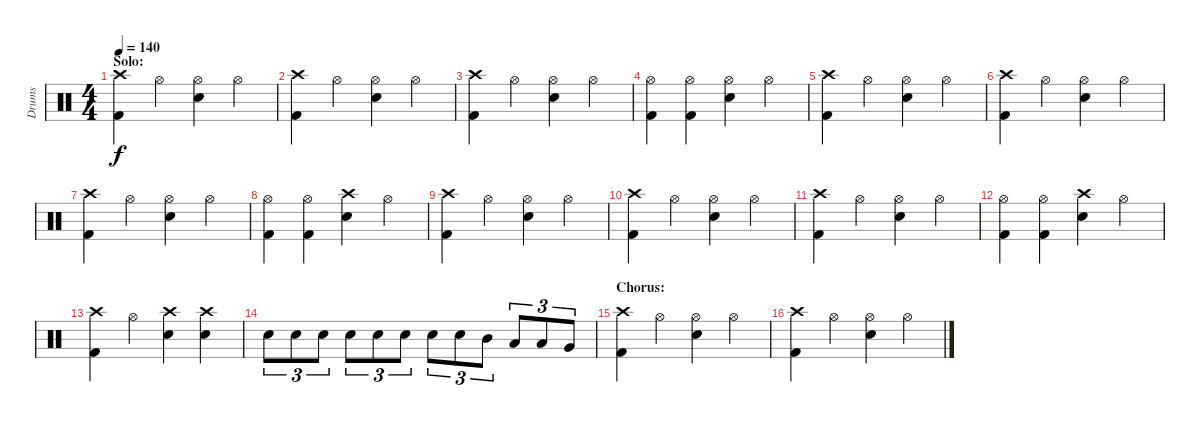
\track ("Drums" "Drums") {instrument percussion}
\staff {score}
\articulation defaults
\ts (4 4)
\section ("" "Solo:")
\tempo 140
\clef neutral
\ks c
("Crash high (hit)" "Kick (hit) 2").4{dy f} "Hi-Hat (open)".4 ("Hi-Hat (open)" "Electric Snare (hit)").4 "Hi-Hat (open)".4 |
("Crash high (hit)" "Kick (hit) 2").4 "Hi-Hat (open)".4 ("Hi-Hat (open)" "Electric Snare (hit)").4 "Hi-Hat (open)".4 |
("Crash high (hit)" "Kick (hit) 2").4 "Hi-Hat (open)".4 ("Hi-Hat (open)" "Electric Snare (hit)").4 "Hi-Hat (open)".4 |
("Hi-Hat (open)" "Kick (hit) 2").4 ("Hi-Hat (open)" "Kick (hit) 2").4 ("Hi-Hat (open)" "Electric Snare (hit)").4 "Hi-Hat (open)".4 |
("Crash high (hit)" "Kick (hit) 2").4 "Hi-Hat (open)".4 ("Hi-Hat (open)" "Electric Snare (hit)").4 "Hi-Hat (open)".4 |
("Crash high (hit)" "Kick (hit) 2").4 "Hi-Hat (open)".4 ("Hi-Hat (open)" "Electric Snare (hit)").4 "Hi-Hat (open)".4 |
("Crash high (hit)" "Kick (hit) 2").4 "Hi-Hat (open)".4 ("Hi-Hat (open)" "Electric Snare (hit)").4 "Hi-Hat (open)".4 |
("Hi-Hat (open)" "Kick (hit) 2").4 ("Hi-Hat (open)" "Kick (hit) 2").4 ("Crash high (hit)" "Electric Snare (hit)").4 "Hi-Hat (open)".4 |
("Crash high (hit)" "Kick (hit) 2").4 "Hi-Hat (open)".4 ("Hi-Hat (open)" "Electric Snare (hit)").4 "Hi-Hat (open)".4 |
("Crash high (hit)" "Kick (hit) 2").4 "Hi-Hat (open)".4 ("Hi-Hat (open)" "Electric Snare (hit)").4 "Hi-Hat (open)".4 |
("Crash high (hit)" "Kick (hit) 2").4 "Hi-Hat (open)".4 ("Hi-Hat (open)" "Electric Snare (hit)").4 "Hi-Hat (open)".4 |
("Hi-Hat (open)" "Kick (hit) 2").4 ("Hi-Hat (open)" "Kick (hit) 2").4 ("Crash high (hit)" "Electric Snare (hit)").4 "Hi-Hat (open)".4 |
("Crash high (hit)" "Kick (hit) 2").4 "Hi-Hat (open)".4 ("Crash high (hit)" "Electric Snare (hit)").4 ("Crash high (hit)" "Electric Snare (hit)").4 |
"Electric Snare (hit)".8{tu (3 2)} "Electric Snare (hit)".8{tu (3 2)} "Electric Snare (hit)".8{tu (3 2)} "Electric Snare (hit)".8{tu (3 2)} "Electric Snare (hit)".8{tu (3 2)} "Electric Snare (hit)".8{tu (3 2)} "Electric Snare (hit)".8{tu (3 2)} "Electric Snare (hit)".8{tu (3 2)} "Mid Tom (hit)".8{tu (3 2)} "Low Tom (hit)".8{tu (3 2)} "Low Tom (hit)".8{tu (3 2)} "Very Low Tom (hit)".8{tu (3 2)} |
\section ("" "Chorus:")
("Crash high (hit)" "Kick (hit) 2").4 "Hi-Hat (open)".4 ("Hi-Hat (open)" "Electric Snare (hit)").4 "Hi-Hat (open)".4 |
("Crash high (hit)" "Kick (hit) 2").4 "Hi-Hat (open)".4 ("Hi-Hat (open)" "Electric Snare (hit)").4 "Hi-Hat (open)".4
